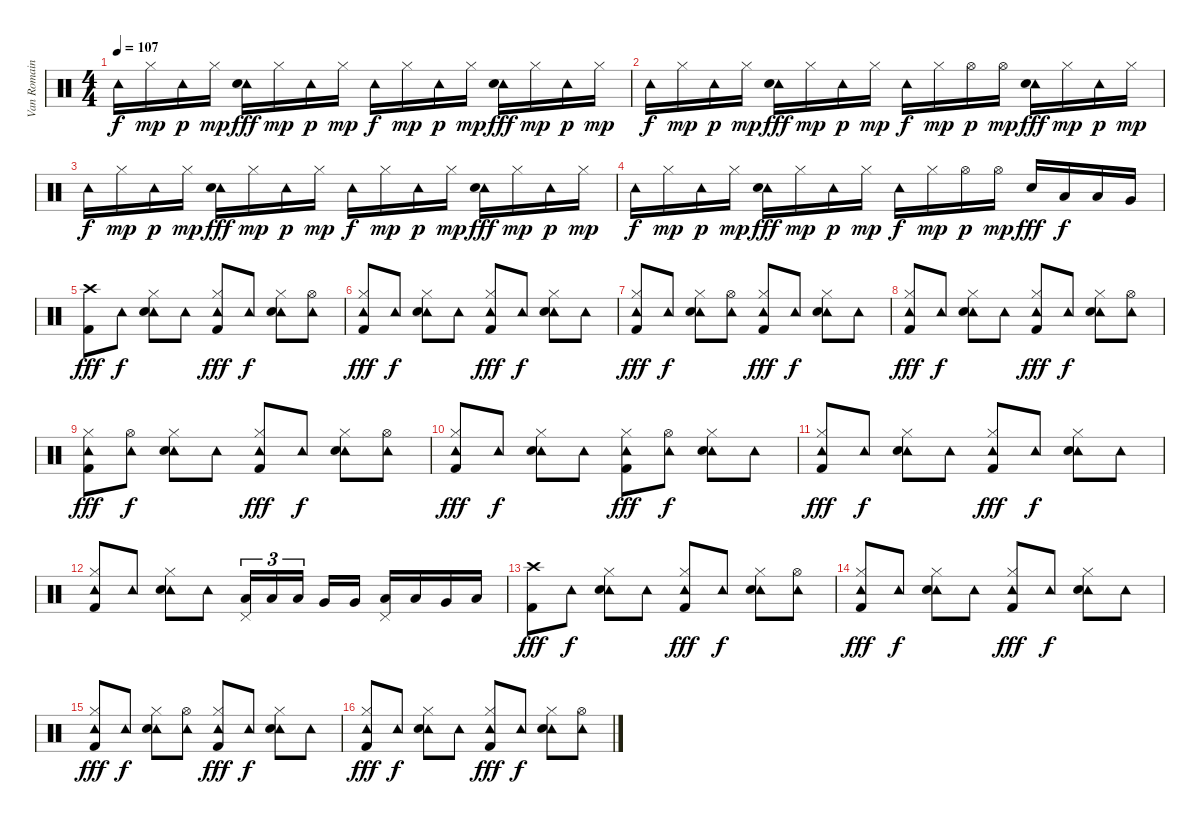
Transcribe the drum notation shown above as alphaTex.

\track ("Van Romaine" "Van Romain") {instrument percussion}
\staff {score}
\articulation defaults
\ts (4 4)
\tempo 107
\clef neutral
\ks c "Tambourine (hit)".16{dy f} "Hi-Hat (closed)".16{dy mp} "Tambourine (hit)".16{dy p} "Hi-Hat (closed)".16{dy mp}
("Tambourine (hit)" "Electric Snare (hit)").16{dy fff} "Hi-Hat (closed)".16{dy mp} "Tambourine (hit)".16{dy p} "Hi-Hat (closed)".16{dy mp} "Tambourine (hit)".16{dy f} "Hi-Hat (closed)".16{dy mp} "Tambourine (hit)".16{dy p} "Hi-Hat (closed)".16{dy mp} ("Tambourine (hit)" "Electric Snare (hit)").16{dy fff} "Hi-Hat (closed)".16{dy mp} "Tambourine (hit)".16{dy p} "Hi-Hat (closed)".16{dy mp} |
"Tambourine (hit)".16{dy f} "Hi-Hat (closed)".16{dy mp} "Tambourine (hit)".16{dy p} "Hi-Hat (closed)".16{dy mp} ("Tambourine (hit)" "Electric Snare (hit)").16{dy fff} "Hi-Hat (closed)".16{dy mp} "Tambourine (hit)".16{dy p} "Hi-Hat (closed)".16{dy mp} "Tambourine (hit)".16{dy f} "Hi-Hat (closed)".16{dy mp} "Hi-Hat (open)".16{dy p} "Hi-Hat (open)".16{dy mp} ("Tambourine (hit)" "Electric Snare (hit)").16{dy fff} "Hi-Hat (closed)".16{dy mp} "Tambourine (hit)".16{dy p} "Hi-Hat (closed)".16{dy mp} |
"Tambourine (hit)".16{dy f} "Hi-Hat (closed)".16{dy mp} "Tambourine (hit)".16{dy p} "Hi-Hat (closed)".16{dy mp} ("Tambourine (hit)" "Electric Snare (hit)").16{dy fff} "Hi-Hat (closed)".16{dy mp} "Tambourine (hit)".16{dy p} "Hi-Hat (closed)".16{dy mp} "Tambourine (hit)".16{dy f} "Hi-Hat (closed)".16{dy mp} "Tambourine (hit)".16{dy p} "Hi-Hat (closed)".16{dy mp} ("Tambourine (hit)" "Electric Snare (hit)").16{dy fff} "Hi-Hat (closed)".16{dy mp} "Tambourine (hit)".16{dy p} "Hi-Hat (closed)".16{dy mp} |
"Tambourine (hit)".16{dy f} "Hi-Hat (closed)".16{dy mp} "Tambourine (hit)".16{dy p} "Hi-Hat (closed)".16{dy mp} ("Tambourine (hit)" "Electric Snare (hit)").16{dy fff} "Hi-Hat (closed)".16{dy mp} "Tambourine (hit)".16{dy p} "Hi-Hat (closed)".16{dy mp} "Tambourine (hit)".16{dy f} "Hi-Hat (closed)".16{dy mp} "Hi-Hat (open)".16{dy p} "Hi-Hat (open)".16{dy mp} "Electric Snare (hit)".16{dy fff} "Low Tom (hit)".16{dy f} "Low Tom (hit)".16 "Very Low Tom (hit)".16 |
("Crash high (hit)" "Kick (hit) 2").8{dy fff volume 12} "Tambourine (hit)".8{dy f} ("Tambourine (hit)" "Hi-Hat (closed)" "Electric Snare (hit)").8 "Tambourine (hit)".8 ("Tambourine (hit)" "Hi-Hat (closed)" "Kick (hit) 2").8{dy fff} "Tambourine (hit)".8{dy f} ("Tambourine (hit)" "Hi-Hat (closed)" "Electric Snare (hit)").8 ("Tambourine (hit)" "Hi-Hat (open)").8 |
("Tambourine (hit)" "Hi-Hat (closed)" "Kick (hit) 2").8{dy fff} "Tambourine (hit)".8{dy f} ("Tambourine (hit)" "Hi-Hat (closed)" "Electric Snare (hit)").8 "Tambourine (hit)".8 ("Tambourine (hit)" "Hi-Hat (closed)" "Kick (hit) 2").8{dy fff} "Tambourine (hit)".8{dy f} ("Tambourine (hit)" "Hi-Hat (closed)" "Electric Snare (hit)").8 "Tambourine (hit)".8 |
("Tambourine (hit)" "Hi-Hat (closed)" "Kick (hit) 2").8{dy fff} "Tambourine (hit)".8{dy f} ("Tambourine (hit)" "Hi-Hat (closed)" "Electric Snare (hit)").8 ("Tambourine (hit)" "Hi-Hat (open)").8 ("Tambourine (hit)" "Hi-Hat (closed)" "Kick (hit) 2").8{dy fff} "Tambourine (hit)".8{dy f} ("Tambourine (hit)" "Hi-Hat (closed)" "Electric Snare (hit)").8 "Tambourine (hit)".8 |
("Tambourine (hit)" "Hi-Hat (closed)" "Kick (hit) 2").8{dy fff} "Tambourine (hit)".8{dy f} ("Tambourine (hit)" "Hi-Hat (closed)" "Electric Snare (hit)").8 "Tambourine (hit)".8 ("Tambourine (hit)" "Hi-Hat (closed)" "Kick (hit) 2").8{dy fff} "Tambourine (hit)".8{dy f} ("Tambourine (hit)" "Hi-Hat (closed)" "Electric Snare (hit)").8 ("Tambourine (hit)" "Hi-Hat (open)").8 |
("Tambourine (hit)" "Hi-Hat (closed)" "Kick (hit) 2").8{dy fff} ("Tambourine (hit)" "Hi-Hat (open)").8{dy f} ("Tambourine (hit)" "Hi-Hat (closed)" "Electric Snare (hit)").8 "Tambourine (hit)".8 ("Tambourine (hit)" "Hi-Hat (closed)" "Kick (hit) 2").8{dy fff} "Tambourine (hit)".8{dy f} ("Tambourine (hit)" "Hi-Hat (closed)" "Electric Snare (hit)").8 ("Tambourine (hit)" "Hi-Hat (open)").8 |
("Tambourine (hit)" "Hi-Hat (closed)" "Kick (hit) 2").8{dy fff} "Tambourine (hit)".8{dy f} ("Tambourine (hit)" "Hi-Hat (closed)" "Electric Snare (hit)").8 "Tambourine (hit)".8 ("Tambourine (hit)" "Hi-Hat (closed)" "Kick (hit) 2").8{dy fff} ("Tambourine (hit)" "Hi-Hat (open)").8{dy f} ("Tambourine (hit)" "Hi-Hat (closed)" "Electric Snare (hit)").8 "Tambourine (hit)".8 |
("Tambourine (hit)" "Hi-Hat (closed)" "Kick (hit) 2").8{dy fff} "Tambourine (hit)".8{dy f} ("Tambourine (hit)" "Hi-Hat (closed)" "Electric Snare (hit)").8 "Tambourine (hit)".8 ("Tambourine (hit)" "Hi-Hat (closed)" "Kick (hit) 2").8{dy fff} "Tambourine (hit)".8{dy f} ("Tambourine (hit)" "Hi-Hat (closed)" "Electric Snare (hit)").8 "Tambourine (hit)".8 |
("Tambourine (hit)" "Hi-Hat (closed)" "Kick (hit) 2").8 "Tambourine (hit)".8 ("Tambourine (hit)" "Hi-Hat (closed)" "Electric Snare (hit)").8 "Tambourine (hit)".8 ("Pedal Hi-Hat (hit)" "Low Tom (hit)").16{tu (3 2)} "Low Tom (hit)".16{tu (3 2)} "Low Tom (hit)".16{tu (3 2)} "Very Low Tom (hit)".16 "Very Low Tom (hit)".16 ("Pedal Hi-Hat (hit)" "Low Tom (hit)").16 "Low Tom (hit)".16 "Very Low Tom (hit)".16 "Low Floor Tom (hit)".16 |
("Crash high (hit)" "Kick (hit) 2").8{dy fff volume 12} "Tambourine (hit)".8{dy f} ("Tambourine (hit)" "Hi-Hat (closed)" "Electric Snare (hit)").8 "Tambourine (hit)".8 ("Tambourine (hit)" "Hi-Hat (closed)" "Kick (hit) 2").8{dy fff} "Tambourine (hit)".8{dy f} ("Tambourine (hit)" "Hi-Hat (closed)" "Electric Snare (hit)").8 ("Tambourine (hit)" "Hi-Hat (open)").8 |
("Tambourine (hit)" "Hi-Hat (closed)" "Kick (hit) 2").8{dy fff} "Tambourine (hit)".8{dy f} ("Tambourine (hit)" "Hi-Hat (closed)" "Electric Snare (hit)").8 "Tambourine (hit)".8 ("Tambourine (hit)" "Hi-Hat (closed)" "Kick (hit) 2").8{dy fff} "Tambourine (hit)".8{dy f} ("Tambourine (hit)" "Hi-Hat (closed)" "Electric Snare (hit)").8 "Tambourine (hit)".8 |
("Tambourine (hit)" "Hi-Hat (closed)" "Kick (hit) 2").8{dy fff} "Tambourine (hit)".8{dy f} ("Tambourine (hit)" "Hi-Hat (closed)" "Electric Snare (hit)").8 ("Tambourine (hit)" "Hi-Hat (open)").8 ("Tambourine (hit)" "Hi-Hat (closed)" "Kick (hit) 2").8{dy fff} "Tambourine (hit)".8{dy f} ("Tambourine (hit)" "Hi-Hat (closed)" "Electric Snare (hit)").8 "Tambourine (hit)".8 |
("Tambourine (hit)" "Hi-Hat (closed)" "Kick (hit) 2").8{dy fff} "Tambourine (hit)".8{dy f} ("Tambourine (hit)" "Hi-Hat (closed)" "Electric Snare (hit)").8 "Tambourine (hit)".8 ("Tambourine (hit)" "Hi-Hat (closed)" "Kick (hit) 2").8{dy fff} "Tambourine (hit)".8{dy f} ("Tambourine (hit)" "Hi-Hat (closed)" "Electric Snare (hit)").8 ("Tambourine (hit)" "Hi-Hat (open)").8
